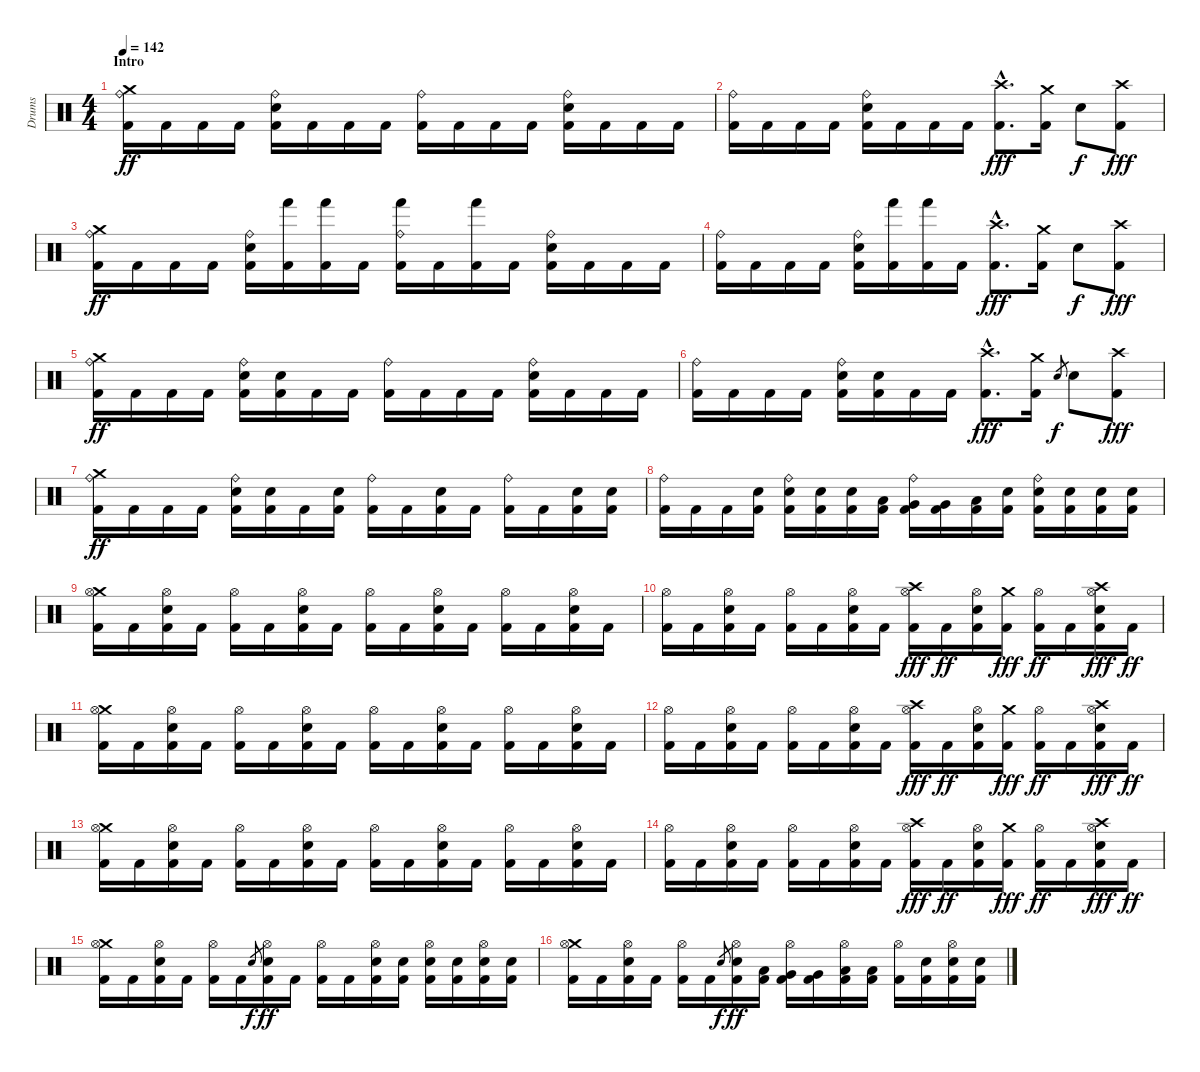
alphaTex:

\track ("Drums" "Drums") {instrument percussion}
\staff {score}
\articulation defaults
\ts (4 4)
\section ("" "Intro")
\tempo 142
\clef neutral
\ks c
("Crash medium (hit)" "Ride (bell)" "Kick (hit) 2").16{dy ff} "Kick (hit) 2".16 "Kick (hit) 2".16 "Kick (hit) 2".16 ("Ride (bell)" "Snare (hit) 2" "Kick (hit) 2").16 "Kick (hit) 2".16 "Kick (hit) 2".16 "Kick (hit) 2".16 ("Ride (bell)" "Kick (hit) 2").16 "Kick (hit) 2".16 "Kick (hit) 2".16 "Kick (hit) 2".16 ("Ride (bell)" "Snare (hit) 2" "Kick (hit) 2").16 "Kick (hit) 2".16 "Kick (hit) 2".16 "Kick (hit) 2".16 |
("Ride (bell)" "Kick (hit) 2").16 "Kick (hit) 2".16 "Kick (hit) 2".16 "Kick (hit) 2".16 ("Ride (bell)" "Snare (hit) 2" "Kick (hit) 2").16 "Kick (hit) 2".16 "Kick (hit) 2".16 "Kick (hit) 2".16 ("Crash high (hit)"{hac} "Kick (hit) 2"{hac}).8{d dy fff} ("Crash medium (hit)" "Kick (hit) 2").16 "Snare (hit) 2".8{dy f} ("Crash high (hit)" "Kick (hit) 2").8{dy fff} |
("Crash medium (hit)" "Ride (bell)" "Kick (hit) 2").16{dy ff} "Kick (hit) 2".16 "Kick (hit) 2".16 "Kick (hit) 2".16 ("Ride (bell)" "Snare (hit) 2" "Kick (hit) 2").16 ("Hand (hit)" "Kick (hit) 2").16 ("Hand (hit)" "Kick (hit) 2").16 "Kick (hit) 2".16 ("Ride (bell)" "Hand (hit)" "Kick (hit) 2").16 "Kick (hit) 2".16 ("Hand (hit)" "Kick (hit) 2").16 "Kick (hit) 2".16 ("Ride (bell)" "Snare (hit) 2" "Kick (hit) 2").16 "Kick (hit) 2".16 "Kick (hit) 2".16 "Kick (hit) 2".16 |
("Ride (bell)" "Kick (hit) 2").16 "Kick (hit) 2".16 "Kick (hit) 2".16 "Kick (hit) 2".16 ("Ride (bell)" "Snare (hit) 2" "Kick (hit) 2").16 ("Hand (hit)" "Kick (hit) 2").16 ("Hand (hit)" "Kick (hit) 2").16 "Kick (hit) 2".16 ("Crash high (hit)"{hac} "Kick (hit) 2"{hac}).8{d dy fff} ("Crash medium (hit)" "Kick (hit) 2").16 "Snare (hit) 2".8{dy f} ("Crash high (hit)" "Kick (hit) 2").8{dy fff} |
("Crash medium (hit)" "Ride (bell)" "Kick (hit) 2").16{dy ff} "Kick (hit) 2".16 "Kick (hit) 2".16 "Kick (hit) 2".16 ("Ride (bell)" "Snare (hit) 2" "Kick (hit) 2").16 ("Snare (hit) 2" "Kick (hit) 2").16 "Kick (hit) 2".16 "Kick (hit) 2".16 ("Ride (bell)" "Kick (hit) 2").16 "Kick (hit) 2".16 "Kick (hit) 2".16 "Kick (hit) 2".16 ("Ride (bell)" "Snare (hit) 2" "Kick (hit) 2").16 "Kick (hit) 2".16 "Kick (hit) 2".16 "Kick (hit) 2".16 |
("Ride (bell)" "Kick (hit) 2").16 "Kick (hit) 2".16 "Kick (hit) 2".16 "Kick (hit) 2".16 ("Ride (bell)" "Snare (hit) 2" "Kick (hit) 2").16 ("Snare (hit) 2" "Kick (hit) 2").16 "Kick (hit) 2".16 "Kick (hit) 2".16 ("Crash high (hit)"{hac} "Kick (hit) 2"{hac}).8{d dy fff} ("Crash medium (hit)" "Kick (hit) 2").16 "Snare (hit) 2".8{gr dy f} "Snare (hit) 2".8 ("Crash high (hit)" "Kick (hit) 2").8{dy fff} |
("Crash medium (hit)" "Ride (bell)" "Kick (hit) 2").16{dy ff} "Kick (hit) 2".16 "Kick (hit) 2".16 "Kick (hit) 2".16 ("Ride (bell)" "Snare (hit) 2" "Kick (hit) 2").16 ("Snare (hit) 2" "Kick (hit) 2").16 "Kick (hit) 2".16 ("Snare (hit) 2" "Kick (hit) 2").16 ("Ride (bell)" "Kick (hit) 2").16 "Kick (hit) 2".16 ("Snare (hit) 2" "Kick (hit) 2").16 "Kick (hit) 2".16 ("Ride (bell)" "Kick (hit) 2").16 "Kick (hit) 2".16 ("Snare (hit) 2" "Kick (hit) 2").16 ("Snare (hit) 2" "Kick (hit) 2").16 |
("Ride (bell)" "Kick (hit) 2").16 "Kick (hit) 2".16 "Kick (hit) 2".16 ("Snare (hit) 2" "Kick (hit) 2").16 ("Ride (bell)" "Snare (hit) 2" "Kick (hit) 2").16 ("Snare (hit) 2" "Kick (hit) 2").16 ("Snare (hit) 2" "Kick (hit) 2").16 ("Low Tom (hit)" "Kick (hit) 2").16 ("Ride (bell)" "Very Low Tom (hit)" "Kick (hit) 2").16 ("Very Low Tom (hit)" "Kick (hit) 2").16 ("Low Floor Tom (hit)" "Kick (hit) 2").16 ("Snare (hit) 2" "Kick (hit) 2").16 ("Ride (bell)" "Snare (hit) 2" "Kick (hit) 2").16 ("Snare (hit) 2" "Kick (hit) 2").16 ("Snare (hit) 2" "Kick (hit) 2").16 ("Snare (hit) 2" "Kick (hit) 2").16 |
("Crash medium (hit)" "Hi-Hat (open)" "Kick (hit) 2").16 "Kick (hit) 2".16 ("Hi-Hat (open)" "Snare (hit) 2" "Kick (hit) 2").16 "Kick (hit) 2".16 ("Hi-Hat (open)" "Kick (hit) 2").16 "Kick (hit) 2".16 ("Hi-Hat (open)" "Snare (hit) 2" "Kick (hit) 2").16 "Kick (hit) 2".16 ("Hi-Hat (open)" "Kick (hit) 2").16 "Kick (hit) 2".16 ("Hi-Hat (open)" "Snare (hit) 2" "Kick (hit) 2").16 "Kick (hit) 2".16 ("Hi-Hat (open)" "Kick (hit) 2").16 "Kick (hit) 2".16 ("Hi-Hat (open)" "Snare (hit) 2" "Kick (hit) 2").16 "Kick (hit) 2".16 |
("Hi-Hat (open)" "Kick (hit) 2").16 "Kick (hit) 2".16 ("Hi-Hat (open)" "Snare (hit) 2" "Kick (hit) 2").16 "Kick (hit) 2".16 ("Hi-Hat (open)" "Kick (hit) 2").16 "Kick (hit) 2".16 ("Hi-Hat (open)" "Snare (hit) 2" "Kick (hit) 2").16 "Kick (hit) 2".16 ("Crash high (hit)" "Hi-Hat (open)" "Kick (hit) 2").16{dy fff} "Kick (hit) 2".16{dy ff} ("Hi-Hat (open)" "Snare (hit) 2" "Kick (hit) 2").16 ("Crash medium (hit)" "Kick (hit) 2").16{dy fff} ("Hi-Hat (open)" "Kick (hit) 2").16{dy ff} "Kick (hit) 2".16 ("Crash high (hit)" "Hi-Hat (open)" "Snare (hit) 2" "Kick (hit) 2").16{dy fff} "Kick (hit) 2".16{dy ff} |
("Crash medium (hit)" "Hi-Hat (open)" "Kick (hit) 2").16 "Kick (hit) 2".16 ("Hi-Hat (open)" "Snare (hit) 2" "Kick (hit) 2").16 "Kick (hit) 2".16 ("Hi-Hat (open)" "Kick (hit) 2").16 "Kick (hit) 2".16 ("Hi-Hat (open)" "Snare (hit) 2" "Kick (hit) 2").16 "Kick (hit) 2".16 ("Hi-Hat (open)" "Kick (hit) 2").16 "Kick (hit) 2".16 ("Hi-Hat (open)" "Snare (hit) 2" "Kick (hit) 2").16 "Kick (hit) 2".16 ("Hi-Hat (open)" "Kick (hit) 2").16 "Kick (hit) 2".16 ("Hi-Hat (open)" "Snare (hit) 2" "Kick (hit) 2").16 "Kick (hit) 2".16 |
("Hi-Hat (open)" "Kick (hit) 2").16 "Kick (hit) 2".16 ("Hi-Hat (open)" "Snare (hit) 2" "Kick (hit) 2").16 "Kick (hit) 2".16 ("Hi-Hat (open)" "Kick (hit) 2").16 "Kick (hit) 2".16 ("Hi-Hat (open)" "Snare (hit) 2" "Kick (hit) 2").16 "Kick (hit) 2".16 ("Crash high (hit)" "Hi-Hat (open)" "Kick (hit) 2").16{dy fff} "Kick (hit) 2".16{dy ff} ("Hi-Hat (open)" "Snare (hit) 2" "Kick (hit) 2").16 ("Crash medium (hit)" "Kick (hit) 2").16{dy fff} ("Hi-Hat (open)" "Kick (hit) 2").16{dy ff} "Kick (hit) 2".16 ("Crash high (hit)" "Hi-Hat (open)" "Snare (hit) 2" "Kick (hit) 2").16{dy fff} "Kick (hit) 2".16{dy ff} |
("Crash medium (hit)" "Hi-Hat (open)" "Kick (hit) 2").16 "Kick (hit) 2".16 ("Hi-Hat (open)" "Snare (hit) 2" "Kick (hit) 2").16 "Kick (hit) 2".16 ("Hi-Hat (open)" "Kick (hit) 2").16 "Kick (hit) 2".16 ("Hi-Hat (open)" "Snare (hit) 2" "Kick (hit) 2").16 "Kick (hit) 2".16 ("Hi-Hat (open)" "Kick (hit) 2").16 "Kick (hit) 2".16 ("Hi-Hat (open)" "Snare (hit) 2" "Kick (hit) 2").16 "Kick (hit) 2".16 ("Hi-Hat (open)" "Kick (hit) 2").16 "Kick (hit) 2".16 ("Hi-Hat (open)" "Snare (hit) 2" "Kick (hit) 2").16 "Kick (hit) 2".16 |
("Hi-Hat (open)" "Kick (hit) 2").16 "Kick (hit) 2".16 ("Hi-Hat (open)" "Snare (hit) 2" "Kick (hit) 2").16 "Kick (hit) 2".16 ("Hi-Hat (open)" "Kick (hit) 2").16 "Kick (hit) 2".16 ("Hi-Hat (open)" "Snare (hit) 2" "Kick (hit) 2").16 "Kick (hit) 2".16 ("Crash high (hit)" "Hi-Hat (open)" "Kick (hit) 2").16{dy fff} "Kick (hit) 2".16{dy ff} ("Hi-Hat (open)" "Snare (hit) 2" "Kick (hit) 2").16 ("Crash medium (hit)" "Kick (hit) 2").16{dy fff} ("Hi-Hat (open)" "Kick (hit) 2").16{dy ff} "Kick (hit) 2".16 ("Crash high (hit)" "Hi-Hat (open)" "Snare (hit) 2" "Kick (hit) 2").16{dy fff} "Kick (hit) 2".16{dy ff} |
("Crash medium (hit)" "Hi-Hat (open)" "Kick (hit) 2").16 "Kick (hit) 2".16 ("Hi-Hat (open)" "Snare (hit) 2" "Kick (hit) 2").16 "Kick (hit) 2".16 ("Hi-Hat (open)" "Kick (hit) 2").16 "Kick (hit) 2".16 "Snare (hit) 2".8{gr dy f} ("Hi-Hat (open)" "Snare (hit) 2" "Kick (hit) 2").16{dy ff} "Kick (hit) 2".16 ("Hi-Hat (open)" "Kick (hit) 2").16 "Kick (hit) 2".16 ("Hi-Hat (open)" "Snare (hit) 2" "Kick (hit) 2").16 ("Snare (hit) 2" "Kick (hit) 2").16 ("Hi-Hat (open)" "Snare (hit) 2" "Kick (hit) 2").16 ("Snare (hit) 2" "Kick (hit) 2").16 ("Hi-Hat (open)" "Snare (hit) 2" "Kick (hit) 2").16 ("Snare (hit) 2" "Kick (hit) 2").16 |
("Crash medium (hit)" "Hi-Hat (open)" "Kick (hit) 2").16 "Kick (hit) 2".16 ("Hi-Hat (open)" "Snare (hit) 2" "Kick (hit) 2").16 "Kick (hit) 2".16 ("Hi-Hat (open)" "Kick (hit) 2").16 "Kick (hit) 2".16 "Snare (hit) 2".8{gr dy f} ("Hi-Hat (open)" "Snare (hit) 2" "Kick (hit) 2").16{dy ff} ("Low Tom (hit)" "Kick (hit) 2").16 ("Hi-Hat (open)" "Very Low Tom (hit)" "Kick (hit) 2").16 ("Very Low Tom (hit)" "Kick (hit) 2").16 ("Hi-Hat (open)" "Low Floor Tom (hit)" "Kick (hit) 2").16 ("Low Floor Tom (hit)" "Kick (hit) 2").16 ("Hi-Hat (open)" "Kick (hit) 2").16 ("Snare (hit) 2" "Kick (hit) 2").16 ("Hi-Hat (open)" "Snare (hit) 2" "Kick (hit) 2").16 ("Snare (hit) 2" "Kick (hit) 2").16
